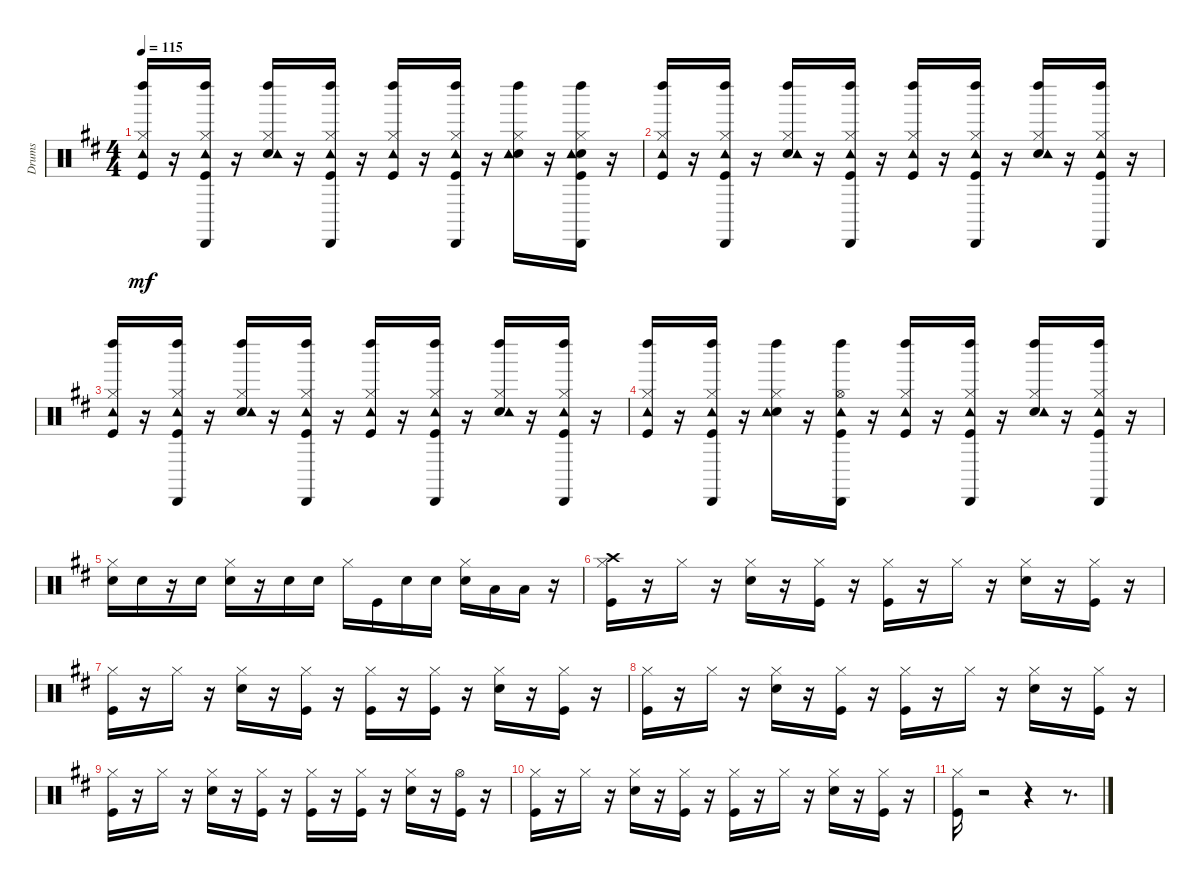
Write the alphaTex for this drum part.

\track ("Drums" "Drums") {instrument percussion}
\staff {score}
\articulation defaults
\ts (4 4)
\tempo 115
\clef neutral
\ks bminor
("Kick (hit)" "Hi-Hat (closed)" "Tambourine (hit)" "Left Maraca (hit)").16{dy mf} r.16 ("Kick (hit)" "Hi-Hat (closed)" "Tambourine (hit)" "Cabasa (hit)" "Left Maraca (hit)").16 r.16 ("Snare (hit) 2" "Hi-Hat (closed)" "Tambourine (hit)" "Left Maraca (hit)").16 r.16 ("Kick (hit)" "Hi-Hat (closed)" "Tambourine (hit)" "Cabasa (hit)" "Left Maraca (hit)").16 r.16 ("Kick (hit)" "Hi-Hat (closed)" "Tambourine (hit)" "Left Maraca (hit)").16 r.16 ("Kick (hit)" "Hi-Hat (closed)" "Tambourine (hit)" "Cabasa (hit)" "Left Maraca (hit)").16 r.16 ("Snare (hit) 2" "Hi-Hat (closed)" "Tambourine (hit)" "Left Maraca (hit)").16 r.16 ("Kick (hit)" "Snare (hit) 2" "Hi-Hat (closed)" "Tambourine (hit)" "Cabasa (hit)" "Left Maraca (hit)").16 r.16 |
("Kick (hit)" "Hi-Hat (closed)" "Tambourine (hit)" "Left Maraca (hit)").16 r.16 ("Kick (hit)" "Hi-Hat (closed)" "Tambourine (hit)" "Cabasa (hit)" "Left Maraca (hit)").16 r.16 ("Snare (hit) 2" "Hi-Hat (closed)" "Tambourine (hit)" "Left Maraca (hit)").16 r.16 ("Kick (hit)" "Hi-Hat (closed)" "Tambourine (hit)" "Cabasa (hit)" "Left Maraca (hit)").16 r.16 ("Kick (hit)" "Hi-Hat (closed)" "Tambourine (hit)" "Left Maraca (hit)").16 r.16 ("Kick (hit)" "Hi-Hat (closed)" "Tambourine (hit)" "Cabasa (hit)" "Left Maraca (hit)").16 r.16 ("Snare (hit) 2" "Hi-Hat (closed)" "Tambourine (hit)" "Left Maraca (hit)").16 r.16 ("Kick (hit)" "Hi-Hat (closed)" "Tambourine (hit)" "Cabasa (hit)" "Left Maraca (hit)").16 r.16 |
("Kick (hit)" "Hi-Hat (closed)" "Tambourine (hit)" "Left Maraca (hit)").16 r.16 ("Kick (hit)" "Hi-Hat (closed)" "Tambourine (hit)" "Cabasa (hit)" "Left Maraca (hit)").16 r.16 ("Snare (hit) 2" "Hi-Hat (closed)" "Tambourine (hit)" "Left Maraca (hit)").16 r.16 ("Kick (hit)" "Hi-Hat (closed)" "Tambourine (hit)" "Cabasa (hit)" "Left Maraca (hit)").16 r.16 ("Kick (hit)" "Hi-Hat (closed)" "Tambourine (hit)" "Left Maraca (hit)").16 r.16 ("Kick (hit)" "Hi-Hat (closed)" "Tambourine (hit)" "Cabasa (hit)" "Left Maraca (hit)").16 r.16 ("Snare (hit) 2" "Hi-Hat (closed)" "Tambourine (hit)" "Left Maraca (hit)").16 r.16 ("Kick (hit)" "Hi-Hat (closed)" "Tambourine (hit)" "Cabasa (hit)" "Left Maraca (hit)").16 r.16 |
("Kick (hit)" "Hi-Hat (closed)" "Tambourine (hit)" "Left Maraca (hit)").16 r.16 ("Kick (hit)" "Hi-Hat (closed)" "Tambourine (hit)" "Cabasa (hit)" "Left Maraca (hit)").16 r.16 ("Snare (hit) 2" "Hi-Hat (closed)" "Tambourine (hit)" "Left Maraca (hit)").16 r.16 ("Kick (hit)" "Hi-Hat (open)" "Tambourine (hit)" "Cabasa (hit)" "Left Maraca (hit)").16 r.16 ("Kick (hit)" "Hi-Hat (closed)" "Tambourine (hit)" "Left Maraca (hit)").16 r.16 ("Kick (hit)" "Hi-Hat (closed)" "Tambourine (hit)" "Cabasa (hit)" "Left Maraca (hit)").16 r.16 ("Snare (hit) 2" "Hi-Hat (closed)" "Tambourine (hit)" "Left Maraca (hit)").16 r.16 ("Kick (hit)" "Hi-Hat (closed)" "Tambourine (hit)" "Cabasa (hit)" "Left Maraca (hit)").16 r.16 |
("Snare (hit) 2" "Hi-Hat (closed)").16 "Snare (hit) 2".16 r.16 "Snare (hit) 2".16 ("Snare (hit) 2" "Hi-Hat (closed)").16 r.16 "Snare (hit) 2".16 "Snare (hit) 2".16 "Hi-Hat (closed)".16 "Kick (hit)".16 "Snare (hit) 2".16 "Snare (hit) 2".16 ("Snare (hit) 2" "Hi-Hat (closed)").16 "Low Tom (hit)".16 "Low Floor Tom (hit)".16 r.16 |
("Kick (hit)" "Hi-Hat (closed)" "Crash high (hit)").16 r.16 "Hi-Hat (closed)".16 r.16 ("Snare (hit) 2" "Hi-Hat (closed)").16 r.16 ("Kick (hit)" "Hi-Hat (closed)").16 r.16 ("Kick (hit)" "Hi-Hat (closed)").16 r.16 "Hi-Hat (closed)".16 r.16 ("Snare (hit) 2" "Hi-Hat (closed)").16 r.16 ("Kick (hit)" "Hi-Hat (closed)").16 r.16 |
("Kick (hit)" "Hi-Hat (closed)").16 r.16 "Hi-Hat (closed)".16 r.16 ("Snare (hit) 2" "Hi-Hat (closed)").16 r.16 ("Kick (hit)" "Hi-Hat (closed)").16 r.16 ("Kick (hit)" "Hi-Hat (closed)").16 r.16 ("Kick (hit)" "Hi-Hat (closed)").16 r.16 ("Snare (hit) 2" "Hi-Hat (closed)").16 r.16 ("Kick (hit)" "Hi-Hat (closed)").16 r.16 |
("Kick (hit)" "Hi-Hat (closed)").16 r.16 "Hi-Hat (closed)".16 r.16 ("Snare (hit) 2" "Hi-Hat (closed)").16 r.16 ("Kick (hit)" "Hi-Hat (closed)").16 r.16 ("Kick (hit)" "Hi-Hat (closed)").16 r.16 "Hi-Hat (closed)".16 r.16 ("Snare (hit) 2" "Hi-Hat (closed)").16 r.16 ("Kick (hit)" "Hi-Hat (closed)").16 r.16 |
("Kick (hit)" "Hi-Hat (closed)").16 r.16 "Hi-Hat (closed)".16 r.16 ("Snare (hit) 2" "Hi-Hat (closed)").16 r.16 ("Kick (hit)" "Hi-Hat (closed)").16 r.16 ("Kick (hit)" "Hi-Hat (closed)").16 r.16 ("Kick (hit)" "Hi-Hat (closed)").16 r.16 ("Snare (hit) 2" "Hi-Hat (closed)").16 r.16 ("Kick (hit)" "Hi-Hat (open)").16 r.16 |
("Kick (hit)" "Hi-Hat (closed)").16 r.16 "Hi-Hat (closed)".16 r.16 ("Snare (hit) 2" "Hi-Hat (closed)").16 r.16 ("Kick (hit)" "Hi-Hat (closed)").16 r.16 ("Kick (hit)" "Hi-Hat (closed)").16 r.16 "Hi-Hat (closed)".16 r.16 ("Snare (hit) 2" "Hi-Hat (closed)").16 r.16 ("Kick (hit)" "Hi-Hat (closed)").16 r.16 |
("Kick (hit)" "Hi-Hat (closed)").16 r.2 r.4 r.8{d}
